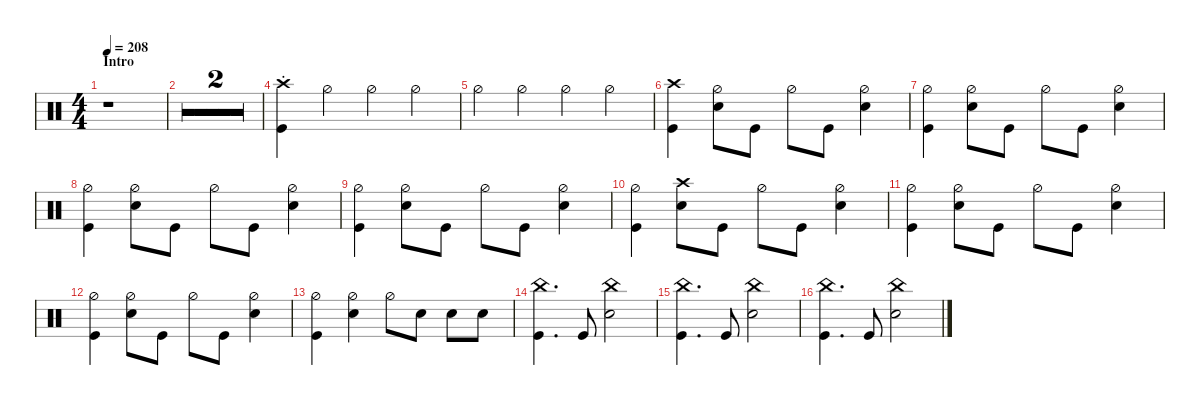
\defaultSystemsLayout 4
\hideDynamics
\bracketExtendMode nobrackets
\singleTrackTrackNamePolicy hidden
\multiTrackTrackNamePolicy hidden
\otherSystemsTrackNameOrientation horizontal
\track ("Drums" "drm.") {multiBarRest instrument percussion}
\staff {score}
\articulation defaults
\ts (4 4)
\section ("" "Intro")
\tempo 208
\clef neutral
\ks c
r.1{dy f beam Down} |
r.1{beam Down} |
r.1{beam Down} |
("Kick (hit)" "Crash high (hit)"{st}).4{beam Down} "Hi-Hat (half)".4{beam Down} "Hi-Hat (half)".4{beam Down} "Hi-Hat (half)".4{beam Down} |
"Hi-Hat (half)".4{beam Down} "Hi-Hat (half)".4{beam Down} "Hi-Hat (half)".4{beam Down} "Hi-Hat (half)".4{beam Down} |
("Crash high (hit)" "Kick (hit)").4{beam Down} ("Snare (hit) 2" "Hi-Hat (half)").8{beam Down} "Kick (hit)".8{beam Down} "Hi-Hat (half)".8{beam Down} "Kick (hit)".8{beam Down} ("Snare (hit) 2" "Hi-Hat (half)").4{beam Down} |
("Kick (hit)" "Hi-Hat (half)").4{beam Down} ("Snare (hit) 2" "Hi-Hat (half)").8{beam Down} "Kick (hit)".8{beam Down} "Hi-Hat (half)".8{beam Down} "Kick (hit)".8{beam Down} ("Snare (hit) 2" "Hi-Hat (half)").4{beam Down} |
("Kick (hit)" "Hi-Hat (half)").4{beam Down} ("Snare (hit) 2" "Hi-Hat (half)").8{beam Down} "Kick (hit)".8{beam Down} "Hi-Hat (half)".8{beam Down} "Kick (hit)".8{beam Down} ("Snare (hit) 2" "Hi-Hat (half)").4{beam Down} |
("Kick (hit)" "Hi-Hat (half)").4{beam Down} ("Snare (hit) 2" "Hi-Hat (half)").8{beam Down} "Kick (hit)".8{beam Down} "Hi-Hat (half)".8{beam Down} "Kick (hit)".8{beam Down} ("Snare (hit) 2" "Hi-Hat (half)").4{beam Down} |
("Kick (hit)" "Hi-Hat (half)").4{beam Down} ("Snare (hit) 2" "Crash high (hit)").8{beam Down} "Kick (hit)".8{beam Down} "Hi-Hat (half)".8{beam Down} "Kick (hit)".8{beam Down} ("Snare (hit) 2" "Hi-Hat (half)").4{beam Down} |
("Kick (hit)" "Hi-Hat (half)").4{beam Down} ("Snare (hit) 2" "Hi-Hat (half)").8{beam Down} "Kick (hit)".8{beam Down} "Hi-Hat (half)".8{beam Down} "Kick (hit)".8{beam Down} ("Snare (hit) 2" "Hi-Hat (half)").4{beam Down} |
("Kick (hit)" "Hi-Hat (half)").4{beam Down} ("Snare (hit) 2" "Hi-Hat (half)").8{beam Down} "Kick (hit)".8{beam Down} "Hi-Hat (half)".8{beam Down} "Kick (hit)".8{beam Down} ("Snare (hit) 2" "Hi-Hat (half)").4{beam Down} |
("Kick (hit)" "Hi-Hat (half)").4{beam Down} ("Snare (hit) 2" "Hi-Hat (half)").4{beam Down} "Hi-Hat (half)".8{beam Down} "Snare (hit) 2".8{beam Down} "Snare (hit) 2".8{beam Down} "Snare (hit) 2".8{beam Down} |
("China (hit)" "Kick (hit)").4{d beam Down} "Kick (hit)".8{beam Up} ("Snare (hit) 2" "China (hit)").2{beam Down} |
("China (hit)" "Kick (hit)").4{d beam Down} "Kick (hit)".8{beam Up} ("Snare (hit) 2" "China (hit)").2{beam Down} |
("China (hit)" "Kick (hit)").4{d beam Down} "Kick (hit)".8{beam Up} ("Snare (hit) 2" "China (hit)").2{beam Down}
